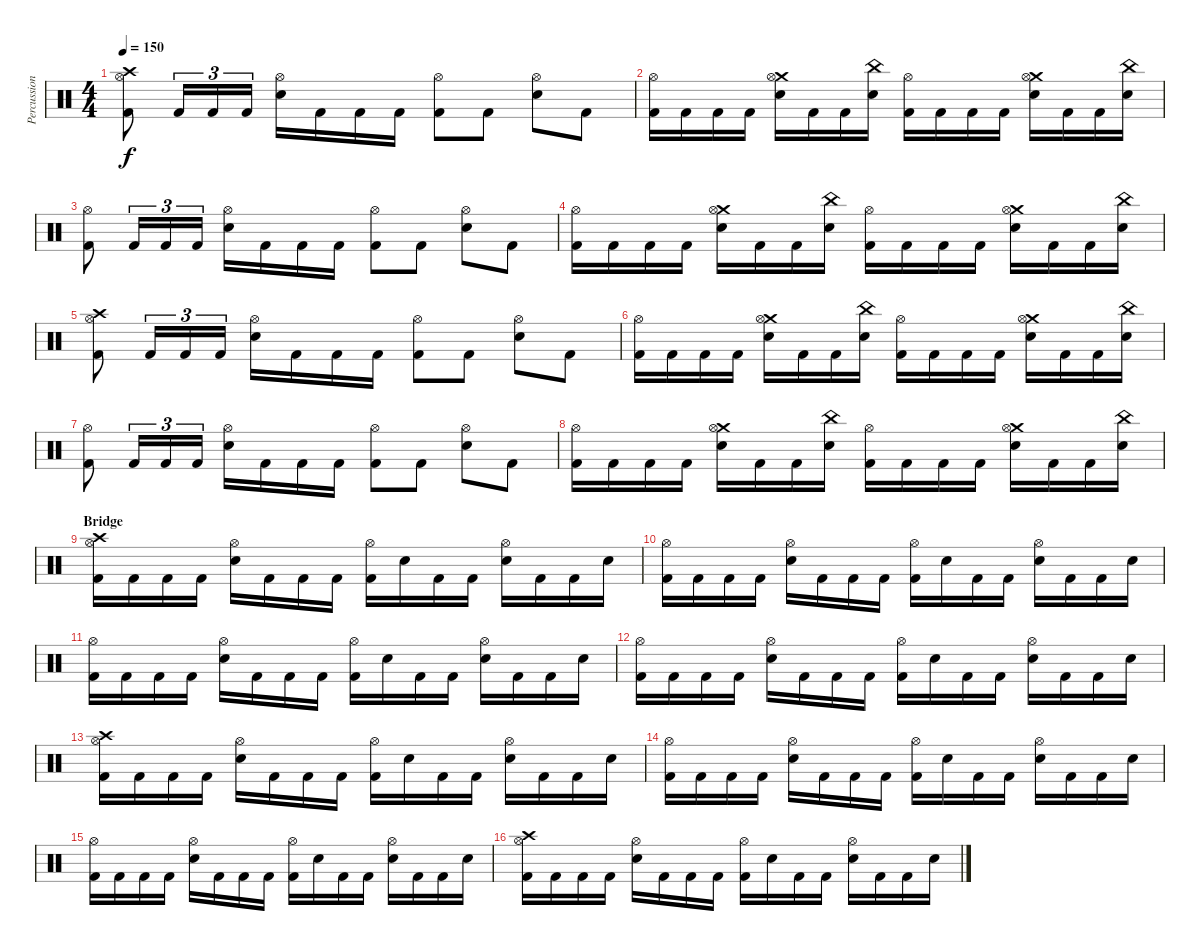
\track ("Percussions" "Percussion") {instrument percussion}
\staff {score}
\articulation defaults
\ts (4 4)
\tempo 150
\clef neutral
\ks c
("Crash high (hit)" "Hi-Hat (open)" "Kick (hit) 2").8{dy f} "Kick (hit) 2".16{tu (3 2)} "Kick (hit) 2".16{tu (3 2)} "Kick (hit) 2".16{tu (3 2)} ("Hi-Hat (open)" "Electric Snare (hit)").16 "Kick (hit) 2".16 "Kick (hit) 2".16 "Kick (hit) 2".16 ("Hi-Hat (open)" "Kick (hit) 2").8 "Kick (hit) 2".8 ("Hi-Hat (open)" "Electric Snare (hit)").8 "Kick (hit) 2".8 |
("Hi-Hat (open)" "Kick (hit) 2").16 "Kick (hit) 2".16 "Kick (hit) 2".16 "Kick (hit) 2".16 ("Crash medium (hit)" "Hi-Hat (open)" "Electric Snare (hit)").16 "Kick (hit) 2".16 "Kick (hit) 2".16 ("China (hit)" "Electric Snare (hit)").16 ("Hi-Hat (open)" "Kick (hit) 2").16 "Kick (hit) 2".16 "Kick (hit) 2".16 "Kick (hit) 2".16 ("Crash medium (hit)" "Hi-Hat (open)" "Electric Snare (hit)").16 "Kick (hit) 2".16 "Kick (hit) 2".16 ("China (hit)" "Electric Snare (hit)").16 |
("Hi-Hat (open)" "Kick (hit) 2").8 "Kick (hit) 2".16{tu (3 2)} "Kick (hit) 2".16{tu (3 2)} "Kick (hit) 2".16{tu (3 2)} ("Hi-Hat (open)" "Electric Snare (hit)").16 "Kick (hit) 2".16 "Kick (hit) 2".16 "Kick (hit) 2".16 ("Hi-Hat (open)" "Kick (hit) 2").8 "Kick (hit) 2".8 ("Hi-Hat (open)" "Electric Snare (hit)").8 "Kick (hit) 2".8 |
("Hi-Hat (open)" "Kick (hit) 2").16 "Kick (hit) 2".16 "Kick (hit) 2".16 "Kick (hit) 2".16 ("Crash medium (hit)" "Hi-Hat (open)" "Electric Snare (hit)").16 "Kick (hit) 2".16 "Kick (hit) 2".16 ("China (hit)" "Electric Snare (hit)").16 ("Hi-Hat (open)" "Kick (hit) 2").16 "Kick (hit) 2".16 "Kick (hit) 2".16 "Kick (hit) 2".16 ("Crash medium (hit)" "Hi-Hat (open)" "Electric Snare (hit)").16 "Kick (hit) 2".16 "Kick (hit) 2".16 ("China (hit)" "Electric Snare (hit)").16 |
("Crash high (hit)" "Hi-Hat (open)" "Kick (hit) 2").8 "Kick (hit) 2".16{tu (3 2)} "Kick (hit) 2".16{tu (3 2)} "Kick (hit) 2".16{tu (3 2)} ("Hi-Hat (open)" "Electric Snare (hit)").16 "Kick (hit) 2".16 "Kick (hit) 2".16 "Kick (hit) 2".16 ("Hi-Hat (open)" "Kick (hit) 2").8 "Kick (hit) 2".8 ("Hi-Hat (open)" "Electric Snare (hit)").8 "Kick (hit) 2".8 |
("Hi-Hat (open)" "Kick (hit) 2").16 "Kick (hit) 2".16 "Kick (hit) 2".16 "Kick (hit) 2".16 ("Crash medium (hit)" "Hi-Hat (open)" "Electric Snare (hit)").16 "Kick (hit) 2".16 "Kick (hit) 2".16 ("China (hit)" "Electric Snare (hit)").16 ("Hi-Hat (open)" "Kick (hit) 2").16 "Kick (hit) 2".16 "Kick (hit) 2".16 "Kick (hit) 2".16 ("Crash medium (hit)" "Hi-Hat (open)" "Electric Snare (hit)").16 "Kick (hit) 2".16 "Kick (hit) 2".16 ("China (hit)" "Electric Snare (hit)").16 |
("Hi-Hat (open)" "Kick (hit) 2").8 "Kick (hit) 2".16{tu (3 2)} "Kick (hit) 2".16{tu (3 2)} "Kick (hit) 2".16{tu (3 2)} ("Hi-Hat (open)" "Electric Snare (hit)").16 "Kick (hit) 2".16 "Kick (hit) 2".16 "Kick (hit) 2".16 ("Hi-Hat (open)" "Kick (hit) 2").8 "Kick (hit) 2".8 ("Hi-Hat (open)" "Electric Snare (hit)").8 "Kick (hit) 2".8 |
("Hi-Hat (open)" "Kick (hit) 2").16 "Kick (hit) 2".16 "Kick (hit) 2".16 "Kick (hit) 2".16 ("Crash medium (hit)" "Hi-Hat (open)" "Electric Snare (hit)").16 "Kick (hit) 2".16 "Kick (hit) 2".16 ("China (hit)" "Electric Snare (hit)").16 ("Hi-Hat (open)" "Kick (hit) 2").16 "Kick (hit) 2".16 "Kick (hit) 2".16 "Kick (hit) 2".16 ("Crash medium (hit)" "Hi-Hat (open)" "Electric Snare (hit)").16 "Kick (hit) 2".16 "Kick (hit) 2".16 ("China (hit)" "Electric Snare (hit)").16 |
\section ("" "Bridge")
("Crash high (hit)" "Hi-Hat (open)" "Kick (hit) 2").16 "Kick (hit) 2".16 "Kick (hit) 2".16 "Kick (hit) 2".16 ("Hi-Hat (open)" "Electric Snare (hit)").16 "Kick (hit) 2".16 "Kick (hit) 2".16 "Kick (hit) 2".16 ("Hi-Hat (open)" "Kick (hit) 2").16 "Electric Snare (hit)".16 "Kick (hit) 2".16 "Kick (hit) 2".16 ("Hi-Hat (open)" "Electric Snare (hit)").16 "Kick (hit) 2".16 "Kick (hit) 2".16 "Electric Snare (hit)".16 |
("Hi-Hat (open)" "Kick (hit) 2").16 "Kick (hit) 2".16 "Kick (hit) 2".16 "Kick (hit) 2".16 ("Hi-Hat (open)" "Electric Snare (hit)").16 "Kick (hit) 2".16 "Kick (hit) 2".16 "Kick (hit) 2".16 ("Hi-Hat (open)" "Kick (hit) 2").16 "Electric Snare (hit)".16 "Kick (hit) 2".16 "Kick (hit) 2".16 ("Hi-Hat (open)" "Electric Snare (hit)").16 "Kick (hit) 2".16 "Kick (hit) 2".16 "Electric Snare (hit)".16 |
("Hi-Hat (open)" "Kick (hit) 2").16 "Kick (hit) 2".16 "Kick (hit) 2".16 "Kick (hit) 2".16 ("Hi-Hat (open)" "Electric Snare (hit)").16 "Kick (hit) 2".16 "Kick (hit) 2".16 "Kick (hit) 2".16 ("Hi-Hat (open)" "Kick (hit) 2").16 "Electric Snare (hit)".16 "Kick (hit) 2".16 "Kick (hit) 2".16 ("Hi-Hat (open)" "Electric Snare (hit)").16 "Kick (hit) 2".16 "Kick (hit) 2".16 "Electric Snare (hit)".16 |
("Hi-Hat (open)" "Kick (hit) 2").16 "Kick (hit) 2".16 "Kick (hit) 2".16 "Kick (hit) 2".16 ("Hi-Hat (open)" "Electric Snare (hit)").16 "Kick (hit) 2".16 "Kick (hit) 2".16 "Kick (hit) 2".16 ("Hi-Hat (open)" "Kick (hit) 2").16 "Electric Snare (hit)".16 "Kick (hit) 2".16 "Kick (hit) 2".16 ("Hi-Hat (open)" "Electric Snare (hit)").16 "Kick (hit) 2".16 "Kick (hit) 2".16 "Electric Snare (hit)".16 |
("Crash high (hit)" "Hi-Hat (open)" "Kick (hit) 2").16 "Kick (hit) 2".16 "Kick (hit) 2".16 "Kick (hit) 2".16 ("Hi-Hat (open)" "Electric Snare (hit)").16 "Kick (hit) 2".16 "Kick (hit) 2".16 "Kick (hit) 2".16 ("Hi-Hat (open)" "Kick (hit) 2").16 "Electric Snare (hit)".16 "Kick (hit) 2".16 "Kick (hit) 2".16 ("Hi-Hat (open)" "Electric Snare (hit)").16 "Kick (hit) 2".16 "Kick (hit) 2".16 "Electric Snare (hit)".16 |
("Hi-Hat (open)" "Kick (hit) 2").16 "Kick (hit) 2".16 "Kick (hit) 2".16 "Kick (hit) 2".16 ("Hi-Hat (open)" "Electric Snare (hit)").16 "Kick (hit) 2".16 "Kick (hit) 2".16 "Kick (hit) 2".16 ("Hi-Hat (open)" "Kick (hit) 2").16 "Electric Snare (hit)".16 "Kick (hit) 2".16 "Kick (hit) 2".16 ("Hi-Hat (open)" "Electric Snare (hit)").16 "Kick (hit) 2".16 "Kick (hit) 2".16 "Electric Snare (hit)".16 |
("Hi-Hat (open)" "Kick (hit) 2").16 "Kick (hit) 2".16 "Kick (hit) 2".16 "Kick (hit) 2".16 ("Hi-Hat (open)" "Electric Snare (hit)").16 "Kick (hit) 2".16 "Kick (hit) 2".16 "Kick (hit) 2".16 ("Hi-Hat (open)" "Kick (hit) 2").16 "Electric Snare (hit)".16 "Kick (hit) 2".16 "Kick (hit) 2".16 ("Hi-Hat (open)" "Electric Snare (hit)").16 "Kick (hit) 2".16 "Kick (hit) 2".16 "Electric Snare (hit)".16 |
("Crash high (hit)" "Hi-Hat (open)" "Kick (hit) 2").16 "Kick (hit) 2".16 "Kick (hit) 2".16 "Kick (hit) 2".16 ("Hi-Hat (open)" "Electric Snare (hit)").16 "Kick (hit) 2".16 "Kick (hit) 2".16 "Kick (hit) 2".16 ("Hi-Hat (open)" "Kick (hit) 2").16 "Electric Snare (hit)".16 "Kick (hit) 2".16 "Kick (hit) 2".16 ("Hi-Hat (open)" "Electric Snare (hit)").16 "Kick (hit) 2".16 "Kick (hit) 2".16 "Electric Snare (hit)".16
